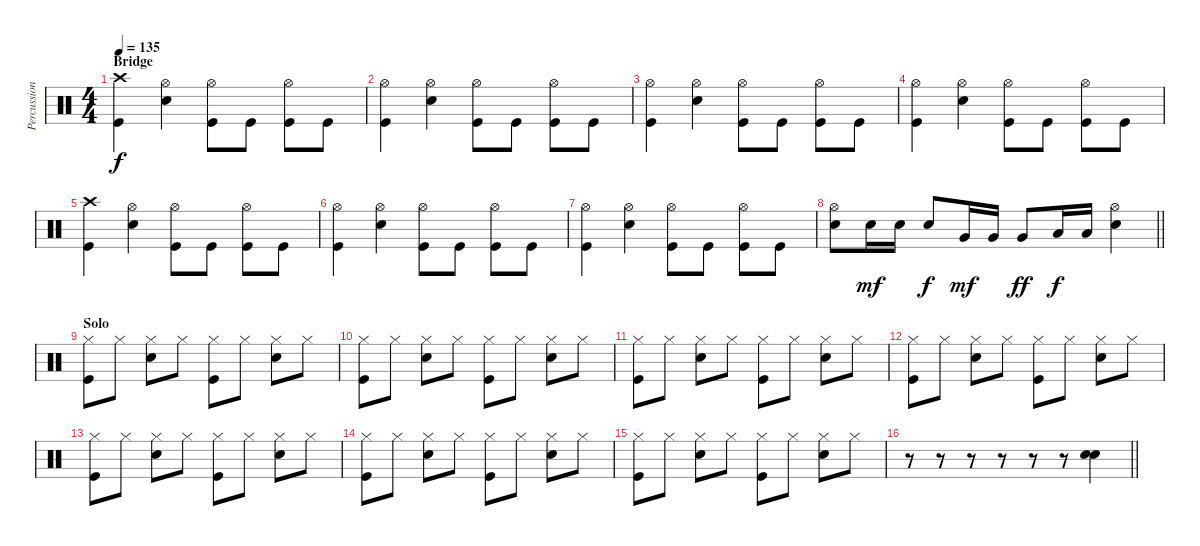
\track ("Percussion" "Percussion") {instrument percussion}
\staff {score}
\articulation defaults
\ts (4 4)
\section ("" "Bridge")
\tempo 135
\clef neutral
\ks c
("Crash high (hit)" "Kick (hit)").4{dy f} ("Snare (hit) 2" "Hi-Hat (open)").4 ("Kick (hit)" "Hi-Hat (open)").8 "Kick (hit)".8 ("Kick (hit)" "Hi-Hat (open)").8 "Kick (hit)".8 |
("Kick (hit)" "Hi-Hat (open)").4 ("Snare (hit) 2" "Hi-Hat (open)").4 ("Kick (hit)" "Hi-Hat (open)").8 "Kick (hit)".8 ("Kick (hit)" "Hi-Hat (open)").8 "Kick (hit)".8 |
("Kick (hit)" "Hi-Hat (open)").4 ("Snare (hit) 2" "Hi-Hat (open)").4 ("Kick (hit)" "Hi-Hat (open)").8 "Kick (hit)".8 ("Kick (hit)" "Hi-Hat (open)").8 "Kick (hit)".8 |
("Kick (hit)" "Hi-Hat (open)").4 ("Snare (hit) 2" "Hi-Hat (open)").4 ("Kick (hit)" "Hi-Hat (open)").8 "Kick (hit)".8 ("Kick (hit)" "Hi-Hat (open)").8 "Kick (hit)".8 |
("Crash high (hit)" "Kick (hit)").4 ("Snare (hit) 2" "Hi-Hat (open)").4 ("Kick (hit)" "Hi-Hat (open)").8 "Kick (hit)".8 ("Kick (hit)" "Hi-Hat (open)").8 "Kick (hit)".8 |
("Kick (hit)" "Hi-Hat (open)").4 ("Snare (hit) 2" "Hi-Hat (open)").4 ("Kick (hit)" "Hi-Hat (open)").8 "Kick (hit)".8 ("Kick (hit)" "Hi-Hat (open)").8 "Kick (hit)".8 |
("Kick (hit)" "Hi-Hat (open)").4 ("Snare (hit) 2" "Hi-Hat (open)").4 ("Kick (hit)" "Hi-Hat (open)").8 "Kick (hit)".8 ("Kick (hit)" "Hi-Hat (open)").8 "Kick (hit)".8 |
\barLineRight lightlight
("Hi-Hat (open)" "Snare (hit) 2").8 "Snare (hit) 2".16{dy mf} "Snare (hit) 2".16 "Snare (hit) 2".8{dy f} "Very Low Tom (hit)".16{dy mf} "Very Low Tom (hit)".16 "Very Low Tom (hit)".8{dy ff} "Low Tom (hit)".16{dy f} "Low Tom (hit)".16 ("Hi-Hat (open)" "Snare (hit) 2").4 |
\section ("" "Solo")
("Hi-Hat (closed)" "Kick (hit)").8 "Hi-Hat (closed)".8 ("Hi-Hat (closed)" "Snare (hit) 2").8 "Hi-Hat (closed)".8 ("Hi-Hat (closed)" "Kick (hit)").8 "Hi-Hat (closed)".8 ("Hi-Hat (closed)" "Snare (hit) 2").8 "Hi-Hat (closed)".8 |
("Hi-Hat (closed)" "Kick (hit)").8 "Hi-Hat (closed)".8 ("Hi-Hat (closed)" "Snare (hit) 2").8 "Hi-Hat (closed)".8 ("Hi-Hat (closed)" "Kick (hit)").8 "Hi-Hat (closed)".8 ("Hi-Hat (closed)" "Snare (hit) 2").8 "Hi-Hat (closed)".8 |
("Hi-Hat (closed)" "Kick (hit)").8 "Hi-Hat (closed)".8 ("Hi-Hat (closed)" "Snare (hit) 2").8 "Hi-Hat (closed)".8 ("Hi-Hat (closed)" "Kick (hit)").8 "Hi-Hat (closed)".8 ("Hi-Hat (closed)" "Snare (hit) 2").8 "Hi-Hat (closed)".8 |
("Hi-Hat (closed)" "Kick (hit)").8 "Hi-Hat (closed)".8 ("Hi-Hat (closed)" "Snare (hit) 2").8 "Hi-Hat (closed)".8 ("Hi-Hat (closed)" "Kick (hit)").8 "Hi-Hat (closed)".8 ("Hi-Hat (closed)" "Snare (hit) 2").8 "Hi-Hat (closed)".8 |
("Hi-Hat (closed)" "Kick (hit)").8 "Hi-Hat (closed)".8 ("Hi-Hat (closed)" "Snare (hit) 2").8 "Hi-Hat (closed)".8 ("Hi-Hat (closed)" "Kick (hit)").8 "Hi-Hat (closed)".8 ("Hi-Hat (closed)" "Snare (hit) 2").8 "Hi-Hat (closed)".8 |
("Hi-Hat (closed)" "Kick (hit)").8 "Hi-Hat (closed)".8 ("Hi-Hat (closed)" "Snare (hit) 2").8 "Hi-Hat (closed)".8 ("Hi-Hat (closed)" "Kick (hit)").8 "Hi-Hat (closed)".8 ("Hi-Hat (closed)" "Snare (hit) 2").8 "Hi-Hat (closed)".8 |
("Hi-Hat (closed)" "Kick (hit)").8 "Hi-Hat (closed)".8 ("Hi-Hat (closed)" "Snare (hit) 2").8 "Hi-Hat (closed)".8 ("Hi-Hat (closed)" "Kick (hit)").8 "Hi-Hat (closed)".8 ("Hi-Hat (closed)" "Snare (hit) 2").8 "Hi-Hat (closed)".8 |
\barLineRight lightlight
r.8 r.8 r.8 r.8 r.8 r.8 ("Snare (hit) 2" "Snare (hit) 2").4
